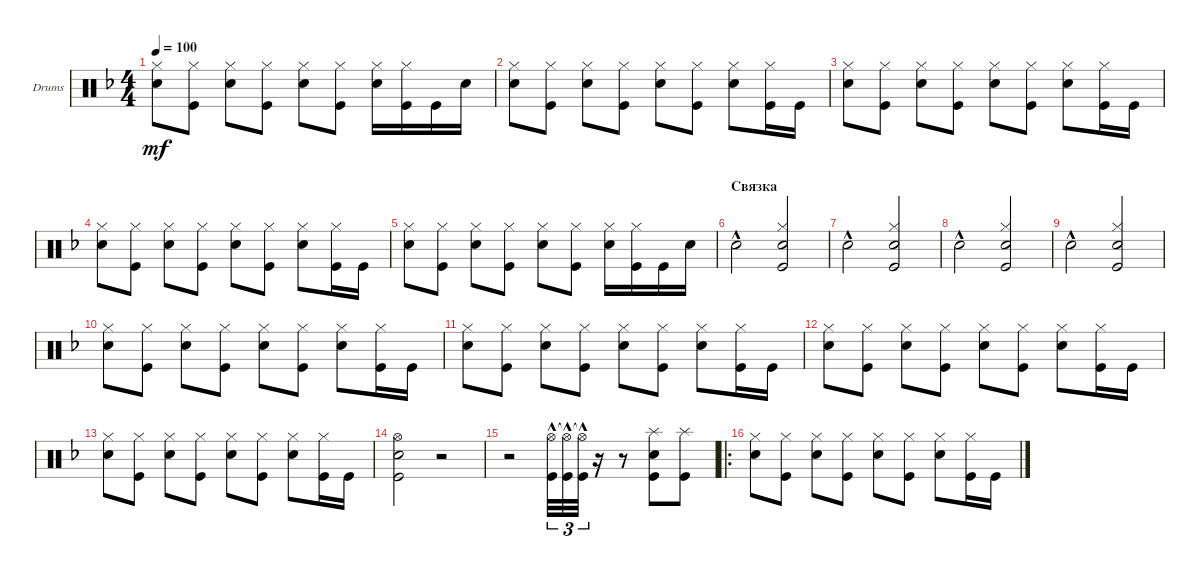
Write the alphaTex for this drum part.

\bracketExtendMode groupsimilarinstruments
\firstSystemTrackNameOrientation horizontal
\otherSystemsTrackNameOrientation horizontal
\track ("БАРАБАНЫ" "Drums") {solo instrument percussion}
\staff {score}
\articulation defaults
\ts (4 4)
\tempo 100
\clef neutral
\ks dminor
("Snare (hit) 2" "Hi-Hat (closed)").8{dy mf} ("Hi-Hat (closed)" "Kick (hit)").8 ("Snare (hit) 2" "Hi-Hat (closed)").8 ("Hi-Hat (closed)" "Kick (hit)").8 ("Snare (hit) 2" "Hi-Hat (closed)").8 ("Hi-Hat (closed)" "Kick (hit)").8 ("Snare (hit) 2" "Hi-Hat (closed)").16 ("Hi-Hat (closed)" "Kick (hit)").16 "Kick (hit)".16 "Snare (hit) 2".16 |
("Snare (hit) 2" "Hi-Hat (closed)").8 ("Hi-Hat (closed)" "Kick (hit)").8 ("Snare (hit) 2" "Hi-Hat (closed)").8 ("Hi-Hat (closed)" "Kick (hit)").8 ("Snare (hit) 2" "Hi-Hat (closed)").8 ("Hi-Hat (closed)" "Kick (hit)").8 ("Snare (hit) 2" "Hi-Hat (closed)").8 ("Hi-Hat (closed)" "Kick (hit)").16 "Kick (hit)".16 |
("Snare (hit) 2" "Hi-Hat (closed)").8 ("Hi-Hat (closed)" "Kick (hit)").8 ("Snare (hit) 2" "Hi-Hat (closed)").8 ("Hi-Hat (closed)" "Kick (hit)").8 ("Snare (hit) 2" "Hi-Hat (closed)").8 ("Hi-Hat (closed)" "Kick (hit)").8 ("Snare (hit) 2" "Hi-Hat (closed)").8 ("Hi-Hat (closed)" "Kick (hit)").16 "Kick (hit)".16 |
("Snare (hit) 2" "Hi-Hat (closed)").8 ("Hi-Hat (closed)" "Kick (hit)").8 ("Snare (hit) 2" "Hi-Hat (closed)").8 ("Hi-Hat (closed)" "Kick (hit)").8 ("Snare (hit) 2" "Hi-Hat (closed)").8 ("Hi-Hat (closed)" "Kick (hit)").8 ("Snare (hit) 2" "Hi-Hat (closed)").8 ("Hi-Hat (closed)" "Kick (hit)").16 "Kick (hit)".16 |
("Snare (hit) 2" "Hi-Hat (closed)").8 ("Hi-Hat (closed)" "Kick (hit)").8 ("Snare (hit) 2" "Hi-Hat (closed)").8 ("Hi-Hat (closed)" "Kick (hit)").8 ("Snare (hit) 2" "Hi-Hat (closed)").8 ("Hi-Hat (closed)" "Kick (hit)").8 ("Snare (hit) 2" "Hi-Hat (closed)").16 ("Hi-Hat (closed)" "Kick (hit)").16 "Kick (hit)".16 "Snare (hit) 2".16 |
\section ("" "Связка")
"Snare (hit) 2"{hac}.2 ("Snare (hit) 2" "Kick (hit)" "Hi-Hat (closed)").2 |
"Snare (hit) 2"{hac}.2 ("Kick (hit)" "Snare (hit) 2" "Hi-Hat (closed)").2 |
"Snare (hit) 2"{hac}.2 ("Kick (hit)" "Snare (hit) 2" "Hi-Hat (closed)").2 |
"Snare (hit) 2"{hac}.2 ("Kick (hit)" "Snare (hit) 2" "Hi-Hat (closed)").2 |
("Snare (hit) 2" "Hi-Hat (closed)").8 ("Hi-Hat (closed)" "Kick (hit)").8 ("Snare (hit) 2" "Hi-Hat (closed)").8 ("Hi-Hat (closed)" "Kick (hit)").8 ("Snare (hit) 2" "Hi-Hat (closed)").8 ("Hi-Hat (closed)" "Kick (hit)").8 ("Snare (hit) 2" "Hi-Hat (closed)").8 ("Hi-Hat (closed)" "Kick (hit)").16 "Kick (hit)".16 |
("Snare (hit) 2" "Hi-Hat (closed)").8 ("Hi-Hat (closed)" "Kick (hit)").8 ("Snare (hit) 2" "Hi-Hat (closed)").8 ("Hi-Hat (closed)" "Kick (hit)").8 ("Snare (hit) 2" "Hi-Hat (closed)").8 ("Hi-Hat (closed)" "Kick (hit)").8 ("Snare (hit) 2" "Hi-Hat (closed)").8 ("Hi-Hat (closed)" "Kick (hit)").16 "Kick (hit)".16 |
("Snare (hit) 2" "Hi-Hat (closed)").8 ("Hi-Hat (closed)" "Kick (hit)").8 ("Snare (hit) 2" "Hi-Hat (closed)").8 ("Hi-Hat (closed)" "Kick (hit)").8 ("Snare (hit) 2" "Hi-Hat (closed)").8 ("Hi-Hat (closed)" "Kick (hit)").8 ("Snare (hit) 2" "Hi-Hat (closed)").8 ("Hi-Hat (closed)" "Kick (hit)").16 "Kick (hit)".16 |
("Snare (hit) 2" "Hi-Hat (closed)").8 ("Hi-Hat (closed)" "Kick (hit)").8 ("Snare (hit) 2" "Hi-Hat (closed)").8 ("Hi-Hat (closed)" "Kick (hit)").8 ("Snare (hit) 2" "Hi-Hat (closed)").8 ("Hi-Hat (closed)" "Kick (hit)").8 ("Snare (hit) 2" "Hi-Hat (closed)").8 ("Hi-Hat (closed)" "Kick (hit)").16 "Kick (hit)".16 |
("Kick (hit)" "Hi-Hat (open)" "Snare (hit) 2").2 r.2 |
r.2 ("Kick (hit)"{hac} "Hi-Hat (open)").32{tu (3 2)} ("Kick (hit)"{hac} "Hi-Hat (open)"{t}).32{tu (3 2)} ("Kick (hit)"{hac} "Hi-Hat (open)"{t}).32{tu (3 2)} r.16 r.8 ("Kick (hit)" "Snare (hit) 2" "Splash (hit)").8 ("Kick (hit)" "Splash (hit)").8 |
\ro
("Snare (hit) 2" "Hi-Hat (closed)").8 ("Hi-Hat (closed)" "Kick (hit)").8 ("Snare (hit) 2" "Hi-Hat (closed)").8 ("Hi-Hat (closed)" "Kick (hit)").8 ("Snare (hit) 2" "Hi-Hat (closed)").8 ("Hi-Hat (closed)" "Kick (hit)").8 ("Snare (hit) 2" "Hi-Hat (closed)").8 ("Hi-Hat (closed)" "Kick (hit)").16 "Kick (hit)".16
